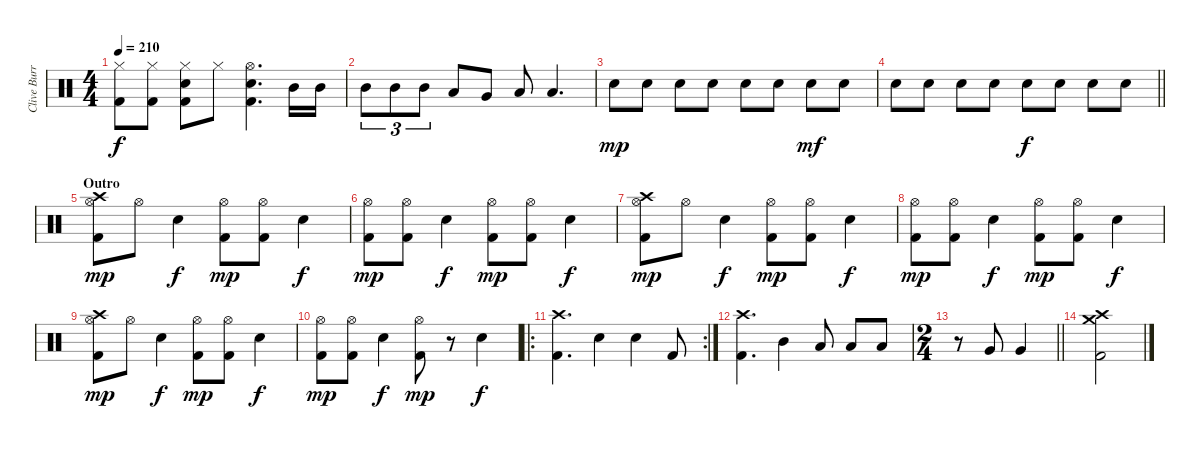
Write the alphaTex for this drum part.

\track ("Clive Burr" "Clive Burr") {instrument percussion}
\staff {score}
\articulation defaults
\ts (4 4)
\tempo 210
\clef neutral
\ks c
("Hi-Hat (closed)" "Kick (hit) 2").8{dy f} ("Hi-Hat (closed)" "Kick (hit) 2").8 ("Snare (hit) 2" "Hi-Hat (closed)" "Kick (hit) 2").8 "Hi-Hat (closed)".8 ("Snare (hit) 2" "Hi-Hat (open)" "Kick (hit) 2").4{d} "Mid Tom (hit)".16 "Mid Tom (hit)".16 |
"Mid Tom (hit)".8{tu (3 2)} "Mid Tom (hit)".8{tu (3 2)} "Mid Tom (hit)".8{tu (3 2)} "Low Tom (hit)".8 "Very Low Tom (hit)".8 "Low Tom (hit)".8 "Low Tom (hit)".4{d} |
"Snare (hit) 2".8{dy mp} "Snare (hit) 2".8 "Snare (hit) 2".8 "Snare (hit) 2".8 "Snare (hit) 2".8 "Snare (hit) 2".8 "Snare (hit) 2".8{dy mf} "Snare (hit) 2".8 |
\barLineRight lightlight "Snare (hit) 2".8 "Snare (hit) 2".8 "Snare (hit) 2".8 "Snare (hit) 2".8 "Snare (hit) 2".8{dy f} "Snare (hit) 2".8 "Snare (hit) 2".8 "Snare (hit) 2".8
|
\section ("" "Outro")
("Crash high (hit)" "Hi-Hat (open)" "Kick (hit) 2").8{dy mp} "Hi-Hat (open)".8 "Snare (hit) 2".4{dy f} ("Hi-Hat (open)" "Kick (hit) 2").8{dy mp} ("Hi-Hat (open)" "Kick (hit) 2").8 "Snare (hit) 2".4{dy f} |
("Hi-Hat (open)" "Kick (hit) 2").8{dy mp} ("Hi-Hat (open)" "Kick (hit) 2").8 "Snare (hit) 2".4{dy f} ("Hi-Hat (open)" "Kick (hit) 2").8{dy mp} ("Hi-Hat (open)" "Kick (hit) 2").8 "Snare (hit) 2".4{dy f} |
("Crash high (hit)" "Hi-Hat (open)" "Kick (hit) 2").8{dy mp} "Hi-Hat (open)".8 "Snare (hit) 2".4{dy f} ("Hi-Hat (open)" "Kick (hit) 2").8{dy mp} ("Hi-Hat (open)" "Kick (hit) 2").8 "Snare (hit) 2".4{dy f} |
("Hi-Hat (open)" "Kick (hit) 2").8{dy mp} ("Hi-Hat (open)" "Kick (hit) 2").8 "Snare (hit) 2".4{dy f} ("Hi-Hat (open)" "Kick (hit) 2").8{dy mp} ("Hi-Hat (open)" "Kick (hit) 2").8 "Snare (hit) 2".4{dy f} |
("Crash high (hit)" "Hi-Hat (open)" "Kick (hit) 2").8{dy mp} "Hi-Hat (open)".8 "Snare (hit) 2".4{dy f} ("Hi-Hat (open)" "Kick (hit) 2").8{dy mp} ("Hi-Hat (open)" "Kick (hit) 2").8 "Snare (hit) 2".4{dy f} |
("Hi-Hat (open)" "Kick (hit) 2").8{dy mp} ("Hi-Hat (open)" "Kick (hit) 2").8 "Snare (hit) 2".4{dy f} ("Hi-Hat (open)" "Kick (hit) 2").8{dy mp} r.8 "Snare (hit) 2".4{dy f} |
\ro
\rc 2
("Crash high (hit)" "Kick (hit) 2").4{d} "Snare (hit) 2".4 "Snare (hit) 2".4 "Kick (hit) 2".8 |
("Crash high (hit)" "Kick (hit) 2").4{d} "Mid Tom (hit)".4 "Low Tom (hit)".8 "Low Tom (hit)".8 "Low Tom (hit)".8 |
\ts (2 4)
\barLineRight lightlight
r.8 "Very Low Tom (hit)".8 "Very Low Tom (hit)".4 |
("Crash high (hit)" "Crash medium (hit)" "Kick (hit) 2").2
